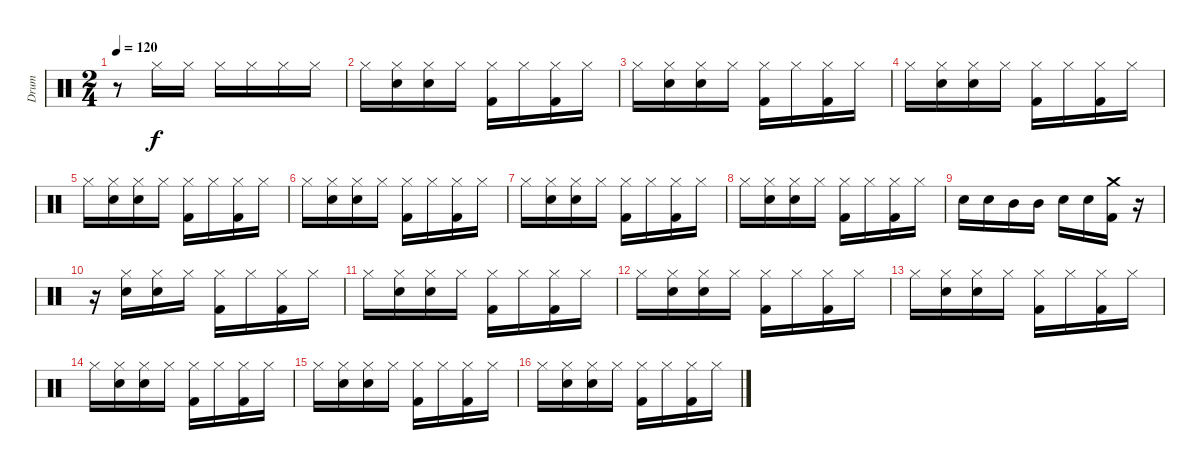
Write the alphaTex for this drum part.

\track ("Drum" "Drum") {instrument percussion}
\staff {score}
\articulation defaults
\ts (2 4)
\tempo 120
\clef neutral
\ks c
r.8{dy f} "Hi-Hat (closed)".16 "Hi-Hat (closed)".16 "Hi-Hat (closed)".16 "Hi-Hat (closed)".16 "Hi-Hat (closed)".16 "Hi-Hat (closed)".16 |
"Hi-Hat (closed)".16 ("Hi-Hat (closed)" "Snare (hit) 2").16 ("Hi-Hat (closed)" "Snare (hit) 2").16 "Hi-Hat (closed)".16 ("Kick (hit) 2" "Hi-Hat (closed)").16 "Hi-Hat (closed)".16 ("Kick (hit) 2" "Hi-Hat (closed)").16 "Hi-Hat (closed)".16 |
"Hi-Hat (closed)".16 ("Hi-Hat (closed)" "Snare (hit) 2").16 ("Hi-Hat (closed)" "Snare (hit) 2").16 "Hi-Hat (closed)".16 ("Kick (hit) 2" "Hi-Hat (closed)").16 "Hi-Hat (closed)".16 ("Kick (hit) 2" "Hi-Hat (closed)").16 "Hi-Hat (closed)".16 |
"Hi-Hat (closed)".16 ("Hi-Hat (closed)" "Snare (hit) 2").16 ("Hi-Hat (closed)" "Snare (hit) 2").16 "Hi-Hat (closed)".16 ("Kick (hit) 2" "Hi-Hat (closed)").16 "Hi-Hat (closed)".16 ("Kick (hit) 2" "Hi-Hat (closed)").16 "Hi-Hat (closed)".16 |
"Hi-Hat (closed)".16 ("Hi-Hat (closed)" "Snare (hit) 2").16 ("Hi-Hat (closed)" "Snare (hit) 2").16 "Hi-Hat (closed)".16 ("Kick (hit) 2" "Hi-Hat (closed)").16 "Hi-Hat (closed)".16 ("Kick (hit) 2" "Hi-Hat (closed)").16 "Hi-Hat (closed)".16 |
"Hi-Hat (closed)".16 ("Hi-Hat (closed)" "Snare (hit) 2").16 ("Hi-Hat (closed)" "Snare (hit) 2").16 "Hi-Hat (closed)".16 ("Kick (hit) 2" "Hi-Hat (closed)").16 "Hi-Hat (closed)".16 ("Kick (hit) 2" "Hi-Hat (closed)").16 "Hi-Hat (closed)".16 |
"Hi-Hat (closed)".16 ("Hi-Hat (closed)" "Snare (hit) 2").16 ("Hi-Hat (closed)" "Snare (hit) 2").16 "Hi-Hat (closed)".16 ("Kick (hit) 2" "Hi-Hat (closed)").16 "Hi-Hat (closed)".16 ("Kick (hit) 2" "Hi-Hat (closed)").16 "Hi-Hat (closed)".16 |
"Hi-Hat (closed)".16 ("Hi-Hat (closed)" "Snare (hit) 2").16 ("Hi-Hat (closed)" "Snare (hit) 2").16 "Hi-Hat (closed)".16 ("Kick (hit) 2" "Hi-Hat (closed)").16 "Hi-Hat (closed)".16 ("Kick (hit) 2" "Hi-Hat (closed)").16 "Hi-Hat (closed)".16 |
"Snare (hit) 2".16 "Snare (hit) 2".16 "Mid Tom (hit)".16 "Mid Tom (hit)".16 "Snare (hit) 2".16 "Snare (hit) 2".16 ("Kick (hit) 2" "Crash medium (hit)").16 r.16 |
r.16 ("Hi-Hat (closed)" "Snare (hit) 2").16 ("Hi-Hat (closed)" "Snare (hit) 2").16 "Hi-Hat (closed)".16 ("Kick (hit) 2" "Hi-Hat (closed)").16 "Hi-Hat (closed)".16 ("Kick (hit) 2" "Hi-Hat (closed)").16 "Hi-Hat (closed)".16 |
"Hi-Hat (closed)".16 ("Hi-Hat (closed)" "Snare (hit) 2").16 ("Hi-Hat (closed)" "Snare (hit) 2").16 "Hi-Hat (closed)".16 ("Kick (hit) 2" "Hi-Hat (closed)").16 "Hi-Hat (closed)".16 ("Kick (hit) 2" "Hi-Hat (closed)").16 "Hi-Hat (closed)".16 |
"Hi-Hat (closed)".16 ("Hi-Hat (closed)" "Snare (hit) 2").16 ("Hi-Hat (closed)" "Snare (hit) 2").16 "Hi-Hat (closed)".16 ("Kick (hit) 2" "Hi-Hat (closed)").16 "Hi-Hat (closed)".16 ("Kick (hit) 2" "Hi-Hat (closed)").16 "Hi-Hat (closed)".16 |
"Hi-Hat (closed)".16 ("Hi-Hat (closed)" "Snare (hit) 2").16 ("Hi-Hat (closed)" "Snare (hit) 2").16 "Hi-Hat (closed)".16 ("Kick (hit) 2" "Hi-Hat (closed)").16 "Hi-Hat (closed)".16 ("Kick (hit) 2" "Hi-Hat (closed)").16 "Hi-Hat (closed)".16 |
"Hi-Hat (closed)".16 ("Hi-Hat (closed)" "Snare (hit) 2").16 ("Hi-Hat (closed)" "Snare (hit) 2").16 "Hi-Hat (closed)".16 ("Kick (hit) 2" "Hi-Hat (closed)").16 "Hi-Hat (closed)".16 ("Kick (hit) 2" "Hi-Hat (closed)").16 "Hi-Hat (closed)".16 |
"Hi-Hat (closed)".16 ("Hi-Hat (closed)" "Snare (hit) 2").16 ("Hi-Hat (closed)" "Snare (hit) 2").16 "Hi-Hat (closed)".16 ("Kick (hit) 2" "Hi-Hat (closed)").16 "Hi-Hat (closed)".16 ("Kick (hit) 2" "Hi-Hat (closed)").16 "Hi-Hat (closed)".16 |
"Hi-Hat (closed)".16 ("Hi-Hat (closed)" "Snare (hit) 2").16 ("Hi-Hat (closed)" "Snare (hit) 2").16 "Hi-Hat (closed)".16 ("Kick (hit) 2" "Hi-Hat (closed)").16 "Hi-Hat (closed)".16 ("Kick (hit) 2" "Hi-Hat (closed)").16 "Hi-Hat (closed)".16
